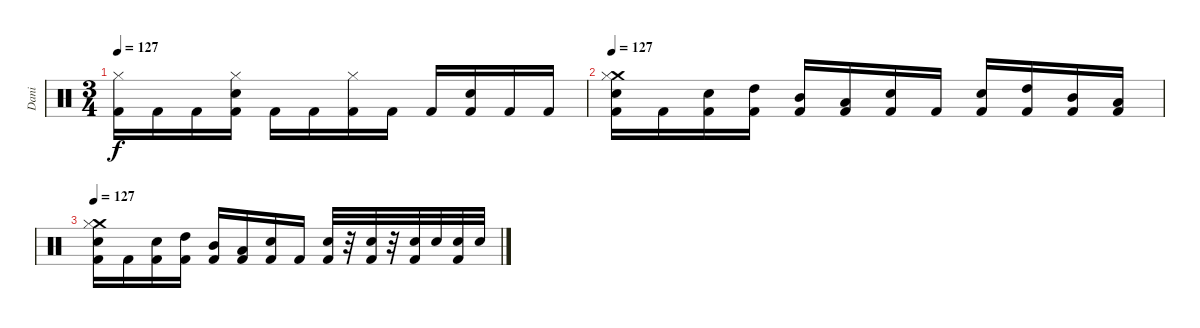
\track ("Dani" "Dani") {instrument percussion}
\staff {score}
\articulation defaults
\ts (3 4)
\tempo 127
\clef neutral
\ks c
("Hi-Hat (closed)" "Kick (hit) 2").16{dy f} "Kick (hit) 2".16 "Kick (hit) 2".16 ("Hi-Hat (closed)" "Electric Snare (hit)" "Kick (hit) 2").16 "Kick (hit) 2".16 "Kick (hit) 2".16 ("Hi-Hat (closed)" "Kick (hit) 2").16 "Kick (hit) 2".16 "Kick (hit) 2".16 ("Electric Snare (hit)" "Kick (hit) 2").16 "Kick (hit) 2".16 "Kick (hit) 2".16 |
\tempo 127
("Crash medium (hit)" "Hi-Hat (closed)" "Electric Snare (hit)" "Kick (hit) 2").16 "Kick (hit) 2".16 ("Electric Snare (hit)" "Kick (hit) 2").16 ("High Tom (hit)" "Kick (hit) 2").16 ("Mid Tom (hit)" "Kick (hit) 2").16 ("Low Tom (hit)" "Kick (hit) 2").16 ("Electric Snare (hit)" "Kick (hit) 2").16 "Kick (hit) 2".16 ("Electric Snare (hit)" "Kick (hit) 2").16 ("High Tom (hit)" "Kick (hit) 2").16 ("Mid Tom (hit)" "Kick (hit) 2").16 ("Low Tom (hit)" "Kick (hit) 2").16 |
\tempo 127
("Crash medium (hit)" "Hi-Hat (closed)" "Electric Snare (hit)" "Kick (hit) 2").16 "Kick (hit) 2".16 ("Electric Snare (hit)" "Kick (hit) 2").16 ("High Tom (hit)" "Kick (hit) 2").16 ("Mid Tom (hit)" "Kick (hit) 2").16 ("Low Tom (hit)" "Kick (hit) 2").16 ("Electric Snare (hit)" "Kick (hit) 2").16 "Kick (hit) 2".16 ("Electric Snare (hit)" "Kick (hit) 2").32 r.32 ("Electric Snare (hit)" "Kick (hit) 2").32 r.32 ("Electric Snare (hit)" "Kick (hit) 2").32 "Electric Snare (hit)".32 ("Electric Snare (hit)" "Kick (hit) 2").32 "Electric Snare (hit)".32
